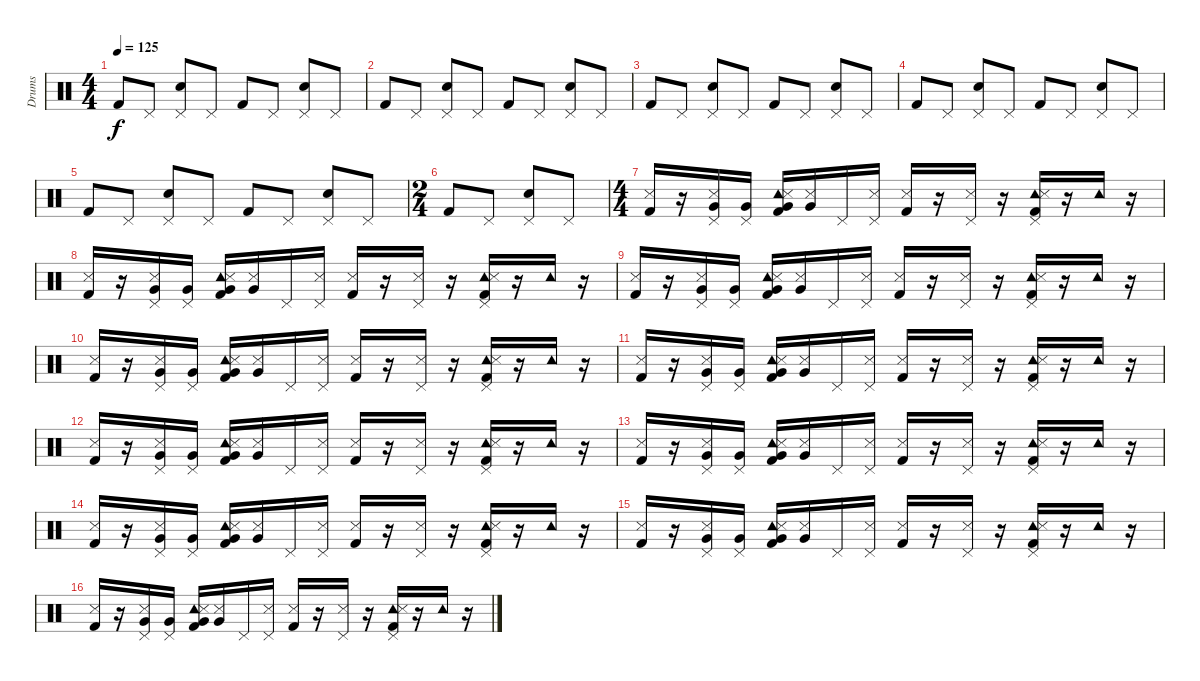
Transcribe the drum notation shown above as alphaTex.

\track ("Drums" "Drums") {instrument percussion}
\staff {score}
\articulation defaults
\ts (4 4)
\tempo 125
\clef neutral
\ks c "Kick (hit) 2".8{dy f} "Pedal Hi-Hat (hit)".8
("Pedal Hi-Hat (hit)" "Electric Snare (hit)").8 "Pedal Hi-Hat (hit)".8 "Kick (hit) 2".8 "Pedal Hi-Hat (hit)".8 ("Pedal Hi-Hat (hit)" "Electric Snare (hit)").8 "Pedal Hi-Hat (hit)".8 |
"Kick (hit) 2".8 "Pedal Hi-Hat (hit)".8 ("Pedal Hi-Hat (hit)" "Electric Snare (hit)").8 "Pedal Hi-Hat (hit)".8 "Kick (hit) 2".8 "Pedal Hi-Hat (hit)".8 ("Pedal Hi-Hat (hit)" "Electric Snare (hit)").8 "Pedal Hi-Hat (hit)".8 |
"Kick (hit) 2".8 "Pedal Hi-Hat (hit)".8 ("Pedal Hi-Hat (hit)" "Electric Snare (hit)").8 "Pedal Hi-Hat (hit)".8 "Kick (hit) 2".8 "Pedal Hi-Hat (hit)".8 ("Pedal Hi-Hat (hit)" "Electric Snare (hit)").8 "Pedal Hi-Hat (hit)".8 |
"Kick (hit) 2".8 "Pedal Hi-Hat (hit)".8 ("Pedal Hi-Hat (hit)" "Electric Snare (hit)").8 "Pedal Hi-Hat (hit)".8 "Kick (hit) 2".8 "Pedal Hi-Hat (hit)".8 ("Pedal Hi-Hat (hit)" "Electric Snare (hit)").8 "Pedal Hi-Hat (hit)".8 |
"Kick (hit) 2".8 "Pedal Hi-Hat (hit)".8 ("Pedal Hi-Hat (hit)" "Electric Snare (hit)").8 "Pedal Hi-Hat (hit)".8 "Kick (hit) 2".8 "Pedal Hi-Hat (hit)".8 ("Pedal Hi-Hat (hit)" "Electric Snare (hit)").8 "Pedal Hi-Hat (hit)".8 |
\ts (2 4)
"Kick (hit) 2".8 "Pedal Hi-Hat (hit)".8 ("Pedal Hi-Hat (hit)" "Electric Snare (hit)").8 "Pedal Hi-Hat (hit)".8 |
\ts (4 4)
("Metronome (hit)" "Kick (hit) 2").16 r.16 ("Pedal Hi-Hat (hit)" "Metronome (hit)" "Very Low Tom (hit)").16 ("Pedal Hi-Hat (hit)" "Very Low Tom (hit)").16 ("Tambourine (hit)" "Metronome (hit)" "Very Low Tom (hit)" "Kick (hit) 2").16 ("Metronome (hit)" "Very Low Tom (hit)").16 "Pedal Hi-Hat (hit)".16 ("Pedal Hi-Hat (hit)" "Metronome (hit)").16 ("Metronome (hit)" "Kick (hit) 2").16 r.16 ("Pedal Hi-Hat (hit)" "Metronome (hit)").16 r.16 ("Tambourine (hit)" "Pedal Hi-Hat (hit)" "Metronome (hit)" "Kick (hit) 2").16 r.16 "Tambourine (hit)".16 r.16 |
("Metronome (hit)" "Kick (hit) 2").16 r.16 ("Pedal Hi-Hat (hit)" "Metronome (hit)" "Very Low Tom (hit)").16 ("Pedal Hi-Hat (hit)" "Very Low Tom (hit)").16 ("Tambourine (hit)" "Metronome (hit)" "Very Low Tom (hit)" "Kick (hit) 2").16 ("Metronome (hit)" "Very Low Tom (hit)").16 "Pedal Hi-Hat (hit)".16 ("Pedal Hi-Hat (hit)" "Metronome (hit)").16 ("Metronome (hit)" "Kick (hit) 2").16 r.16 ("Pedal Hi-Hat (hit)" "Metronome (hit)").16 r.16 ("Tambourine (hit)" "Pedal Hi-Hat (hit)" "Metronome (hit)" "Kick (hit) 2").16 r.16 "Tambourine (hit)".16 r.16 |
("Metronome (hit)" "Kick (hit) 2").16 r.16 ("Pedal Hi-Hat (hit)" "Metronome (hit)" "Very Low Tom (hit)").16 ("Pedal Hi-Hat (hit)" "Very Low Tom (hit)").16 ("Tambourine (hit)" "Metronome (hit)" "Very Low Tom (hit)" "Kick (hit) 2").16 ("Metronome (hit)" "Very Low Tom (hit)").16 "Pedal Hi-Hat (hit)".16 ("Pedal Hi-Hat (hit)" "Metronome (hit)").16 ("Metronome (hit)" "Kick (hit) 2").16 r.16 ("Pedal Hi-Hat (hit)" "Metronome (hit)").16 r.16 ("Tambourine (hit)" "Pedal Hi-Hat (hit)" "Metronome (hit)" "Kick (hit) 2").16 r.16 "Tambourine (hit)".16 r.16 |
("Metronome (hit)" "Kick (hit) 2").16 r.16 ("Pedal Hi-Hat (hit)" "Metronome (hit)" "Very Low Tom (hit)").16 ("Pedal Hi-Hat (hit)" "Very Low Tom (hit)").16 ("Tambourine (hit)" "Metronome (hit)" "Very Low Tom (hit)" "Kick (hit) 2").16 ("Metronome (hit)" "Very Low Tom (hit)").16 "Pedal Hi-Hat (hit)".16 ("Pedal Hi-Hat (hit)" "Metronome (hit)").16 ("Metronome (hit)" "Kick (hit) 2").16 r.16 ("Pedal Hi-Hat (hit)" "Metronome (hit)").16 r.16 ("Tambourine (hit)" "Pedal Hi-Hat (hit)" "Metronome (hit)" "Kick (hit) 2").16 r.16 "Tambourine (hit)".16 r.16 |
("Metronome (hit)" "Kick (hit) 2").16 r.16 ("Pedal Hi-Hat (hit)" "Metronome (hit)" "Very Low Tom (hit)").16 ("Pedal Hi-Hat (hit)" "Very Low Tom (hit)").16 ("Tambourine (hit)" "Metronome (hit)" "Very Low Tom (hit)" "Kick (hit) 2").16 ("Metronome (hit)" "Very Low Tom (hit)").16 "Pedal Hi-Hat (hit)".16 ("Pedal Hi-Hat (hit)" "Metronome (hit)").16 ("Metronome (hit)" "Kick (hit) 2").16 r.16 ("Pedal Hi-Hat (hit)" "Metronome (hit)").16 r.16 ("Tambourine (hit)" "Pedal Hi-Hat (hit)" "Metronome (hit)" "Kick (hit) 2").16 r.16 "Tambourine (hit)".16 r.16 |
("Metronome (hit)" "Kick (hit) 2").16 r.16 ("Pedal Hi-Hat (hit)" "Metronome (hit)" "Very Low Tom (hit)").16 ("Pedal Hi-Hat (hit)" "Very Low Tom (hit)").16 ("Tambourine (hit)" "Metronome (hit)" "Very Low Tom (hit)" "Kick (hit) 2").16 ("Metronome (hit)" "Very Low Tom (hit)").16 "Pedal Hi-Hat (hit)".16 ("Pedal Hi-Hat (hit)" "Metronome (hit)").16 ("Metronome (hit)" "Kick (hit) 2").16 r.16 ("Pedal Hi-Hat (hit)" "Metronome (hit)").16 r.16 ("Tambourine (hit)" "Pedal Hi-Hat (hit)" "Metronome (hit)" "Kick (hit) 2").16 r.16 "Tambourine (hit)".16 r.16 |
("Metronome (hit)" "Kick (hit) 2").16 r.16 ("Pedal Hi-Hat (hit)" "Metronome (hit)" "Very Low Tom (hit)").16 ("Pedal Hi-Hat (hit)" "Very Low Tom (hit)").16 ("Tambourine (hit)" "Metronome (hit)" "Very Low Tom (hit)" "Kick (hit) 2").16 ("Metronome (hit)" "Very Low Tom (hit)").16 "Pedal Hi-Hat (hit)".16 ("Pedal Hi-Hat (hit)" "Metronome (hit)").16 ("Metronome (hit)" "Kick (hit) 2").16 r.16 ("Pedal Hi-Hat (hit)" "Metronome (hit)").16 r.16 ("Tambourine (hit)" "Pedal Hi-Hat (hit)" "Metronome (hit)" "Kick (hit) 2").16 r.16 "Tambourine (hit)".16 r.16 |
("Metronome (hit)" "Kick (hit) 2").16 r.16 ("Pedal Hi-Hat (hit)" "Metronome (hit)" "Very Low Tom (hit)").16 ("Pedal Hi-Hat (hit)" "Very Low Tom (hit)").16 ("Tambourine (hit)" "Metronome (hit)" "Very Low Tom (hit)" "Kick (hit) 2").16 ("Metronome (hit)" "Very Low Tom (hit)").16 "Pedal Hi-Hat (hit)".16 ("Pedal Hi-Hat (hit)" "Metronome (hit)").16 ("Metronome (hit)" "Kick (hit) 2").16 r.16 ("Pedal Hi-Hat (hit)" "Metronome (hit)").16 r.16 ("Tambourine (hit)" "Pedal Hi-Hat (hit)" "Metronome (hit)" "Kick (hit) 2").16 r.16 "Tambourine (hit)".16 r.16 |
("Metronome (hit)" "Kick (hit) 2").16 r.16 ("Pedal Hi-Hat (hit)" "Metronome (hit)" "Very Low Tom (hit)").16 ("Pedal Hi-Hat (hit)" "Very Low Tom (hit)").16 ("Tambourine (hit)" "Metronome (hit)" "Very Low Tom (hit)" "Kick (hit) 2").16 ("Metronome (hit)" "Very Low Tom (hit)").16 "Pedal Hi-Hat (hit)".16 ("Pedal Hi-Hat (hit)" "Metronome (hit)").16 ("Metronome (hit)" "Kick (hit) 2").16 r.16 ("Pedal Hi-Hat (hit)" "Metronome (hit)").16 r.16 ("Tambourine (hit)" "Pedal Hi-Hat (hit)" "Metronome (hit)" "Kick (hit) 2").16 r.16 "Tambourine (hit)".16 r.16 |
("Metronome (hit)" "Kick (hit) 2").16 r.16 ("Pedal Hi-Hat (hit)" "Metronome (hit)" "Very Low Tom (hit)").16 ("Pedal Hi-Hat (hit)" "Very Low Tom (hit)").16 ("Tambourine (hit)" "Metronome (hit)" "Very Low Tom (hit)" "Kick (hit) 2").16 ("Metronome (hit)" "Very Low Tom (hit)").16 "Pedal Hi-Hat (hit)".16 ("Pedal Hi-Hat (hit)" "Metronome (hit)").16 ("Metronome (hit)" "Kick (hit) 2").16 r.16 ("Pedal Hi-Hat (hit)" "Metronome (hit)").16 r.16 ("Tambourine (hit)" "Pedal Hi-Hat (hit)" "Metronome (hit)" "Kick (hit) 2").16 r.16 "Tambourine (hit)".16 r.16
